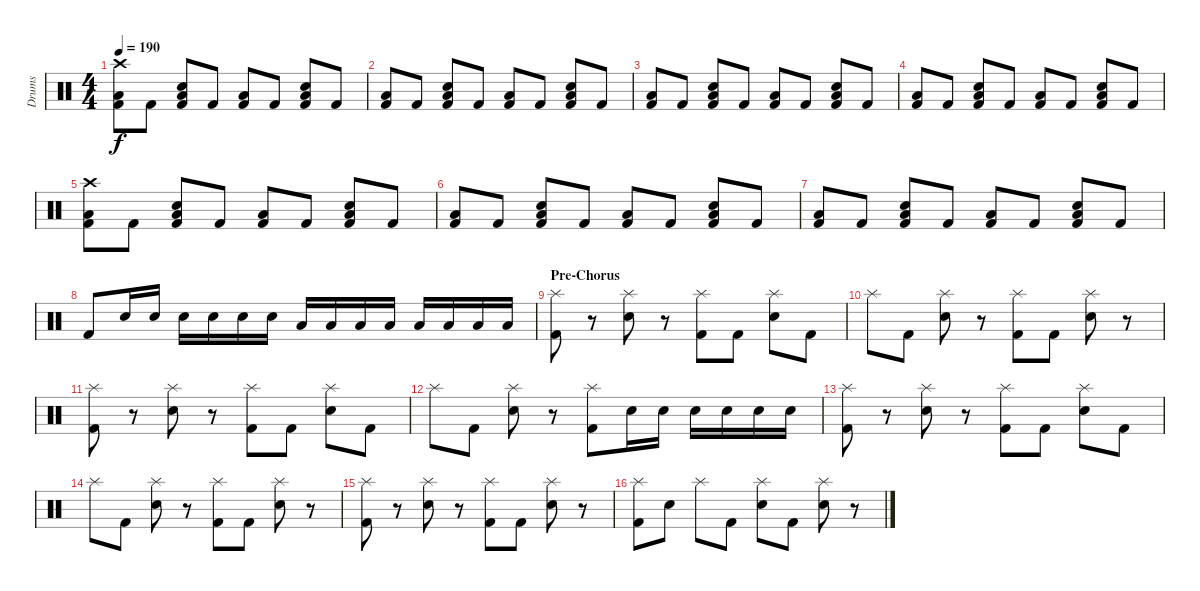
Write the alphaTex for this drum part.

\track ("Drums" "Drums") {instrument percussion}
\staff {score}
\articulation defaults
\ts (4 4)
\tempo 190
\clef neutral
\ks c
("Crash high (hit)" "Low Floor Tom (hit)" "Kick (hit) 2").8{dy f} "Kick (hit) 2".8 ("Low Floor Tom (hit)" "Snare (hit) 2" "Kick (hit) 2").8 "Kick (hit) 2".8 ("Low Floor Tom (hit)" "Kick (hit) 2").8 "Kick (hit) 2".8 ("Low Floor Tom (hit)" "Snare (hit) 2" "Kick (hit) 2").8 "Kick (hit) 2".8 |
("Low Floor Tom (hit)" "Kick (hit) 2").8 "Kick (hit) 2".8 ("Low Floor Tom (hit)" "Snare (hit) 2" "Kick (hit) 2").8 "Kick (hit) 2".8 ("Low Floor Tom (hit)" "Kick (hit) 2").8 "Kick (hit) 2".8 ("Low Floor Tom (hit)" "Snare (hit) 2" "Kick (hit) 2").8 "Kick (hit) 2".8 |
("Low Floor Tom (hit)" "Kick (hit) 2").8 "Kick (hit) 2".8 ("Low Floor Tom (hit)" "Snare (hit) 2" "Kick (hit) 2").8 "Kick (hit) 2".8 ("Low Floor Tom (hit)" "Kick (hit) 2").8 "Kick (hit) 2".8 ("Low Floor Tom (hit)" "Snare (hit) 2" "Kick (hit) 2").8 "Kick (hit) 2".8 |
("Low Floor Tom (hit)" "Kick (hit) 2").8 "Kick (hit) 2".8 ("Low Floor Tom (hit)" "Snare (hit) 2" "Kick (hit) 2").8 "Kick (hit) 2".8 ("Low Floor Tom (hit)" "Kick (hit) 2").8 "Kick (hit) 2".8 ("Low Floor Tom (hit)" "Snare (hit) 2" "Kick (hit) 2").8 "Kick (hit) 2".8 |
("Crash high (hit)" "Low Floor Tom (hit)" "Kick (hit) 2").8 "Kick (hit) 2".8 ("Low Floor Tom (hit)" "Snare (hit) 2" "Kick (hit) 2").8 "Kick (hit) 2".8 ("Low Floor Tom (hit)" "Kick (hit) 2").8 "Kick (hit) 2".8 ("Low Floor Tom (hit)" "Snare (hit) 2" "Kick (hit) 2").8 "Kick (hit) 2".8 |
("Low Floor Tom (hit)" "Kick (hit) 2").8 "Kick (hit) 2".8 ("Low Floor Tom (hit)" "Snare (hit) 2" "Kick (hit) 2").8 "Kick (hit) 2".8 ("Low Floor Tom (hit)" "Kick (hit) 2").8 "Kick (hit) 2".8 ("Low Floor Tom (hit)" "Snare (hit) 2" "Kick (hit) 2").8 "Kick (hit) 2".8 |
("Low Floor Tom (hit)" "Kick (hit) 2").8 "Kick (hit) 2".8 ("Low Floor Tom (hit)" "Snare (hit) 2" "Kick (hit) 2").8 "Kick (hit) 2".8 ("Low Floor Tom (hit)" "Kick (hit) 2").8 "Kick (hit) 2".8 ("Low Floor Tom (hit)" "Snare (hit) 2" "Kick (hit) 2").8 "Kick (hit) 2".8 |
"Kick (hit) 2".8 "Snare (hit) 2".16 "Snare (hit) 2".16 "Snare (hit) 2".16 "Snare (hit) 2".16 "Snare (hit) 2".16 "Snare (hit) 2".16 "Low Tom (hit)".16 "Low Tom (hit)".16 "Low Tom (hit)".16 "Low Tom (hit)".16 "Low Floor Tom (hit)".16 "Low Floor Tom (hit)".16 "Low Floor Tom (hit)".16 "Low Floor Tom (hit)".16 |
\section ("" "Pre-Chorus")
("Splash (hit)" "Kick (hit) 2").8 r.8 ("Splash (hit)" "Snare (hit) 2").8 r.8 ("Splash (hit)" "Kick (hit) 2").8 "Kick (hit) 2".8 ("Splash (hit)" "Snare (hit) 2").8 "Kick (hit) 2".8 |
"Splash (hit)".8 "Kick (hit) 2".8 ("Splash (hit)" "Snare (hit) 2").8 r.8 ("Splash (hit)" "Kick (hit) 2").8 "Kick (hit) 2".8 ("Splash (hit)" "Snare (hit) 2").8 r.8 |
("Splash (hit)" "Kick (hit) 2").8 r.8 ("Splash (hit)" "Snare (hit) 2").8 r.8 ("Splash (hit)" "Kick (hit) 2").8 "Kick (hit) 2".8 ("Splash (hit)" "Snare (hit) 2").8 "Kick (hit) 2".8 |
"Splash (hit)".8 "Kick (hit) 2".8 ("Splash (hit)" "Snare (hit) 2").8 r.8 ("Splash (hit)" "Kick (hit) 2").8 "Snare (hit) 2".16 "Snare (hit) 2".16 "Snare (hit) 2".16 "Snare (hit) 2".16 "Snare (hit) 2".16 "Snare (hit) 2".16 |
("Splash (hit)" "Kick (hit) 2").8 r.8 ("Splash (hit)" "Snare (hit) 2").8 r.8 ("Splash (hit)" "Kick (hit) 2").8 "Kick (hit) 2".8 ("Splash (hit)" "Snare (hit) 2").8 "Kick (hit) 2".8 |
"Splash (hit)".8 "Kick (hit) 2".8 ("Splash (hit)" "Snare (hit) 2").8 r.8 ("Splash (hit)" "Kick (hit) 2").8 "Kick (hit) 2".8 ("Splash (hit)" "Snare (hit) 2").8 r.8 |
("Splash (hit)" "Kick (hit) 2").8 r.8 ("Splash (hit)" "Snare (hit) 2").8 r.8 ("Splash (hit)" "Kick (hit) 2").8 "Kick (hit) 2".8 ("Splash (hit)" "Snare (hit) 2").8 r.8 |
("Splash (hit)" "Kick (hit) 2").8 "Snare (hit) 2".8 "Splash (hit)".8 "Kick (hit) 2".8 ("Splash (hit)" "Snare (hit) 2").8 "Kick (hit) 2".8 ("Splash (hit)" "Snare (hit) 2").8 r.8
